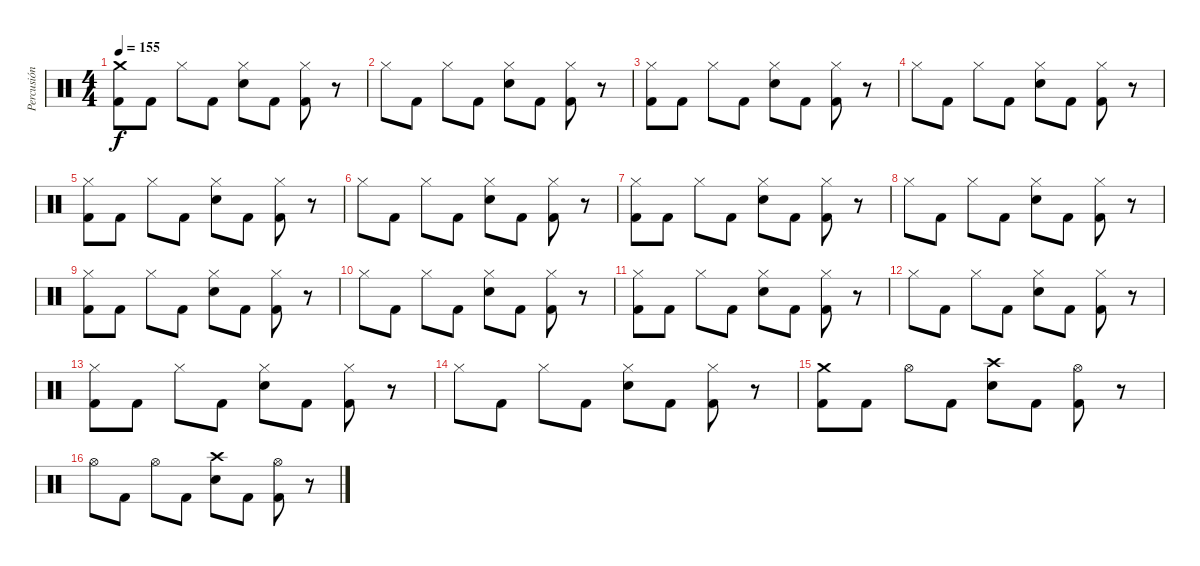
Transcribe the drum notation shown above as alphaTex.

\track ("Percusión" "Percusión") {instrument percussion}
\staff {score}
\articulation defaults
\ts (4 4)
\tempo 155
\clef neutral
\ks c
("Crash medium (hit)" "Kick (hit) 2").8{dy f} "Kick (hit) 2".8 "Hi-Hat (closed)".8 "Kick (hit) 2".8 ("Hi-Hat (closed)" "Electric Snare (hit)").8 "Kick (hit) 2".8 ("Hi-Hat (closed)" "Kick (hit) 2").8 r.8 |
"Hi-Hat (closed)".8 "Kick (hit) 2".8 "Hi-Hat (closed)".8 "Kick (hit) 2".8 ("Hi-Hat (closed)" "Electric Snare (hit)").8 "Kick (hit) 2".8 ("Hi-Hat (closed)" "Kick (hit) 2").8 r.8 |
("Hi-Hat (closed)" "Kick (hit) 2").8 "Kick (hit) 2".8 "Hi-Hat (closed)".8 "Kick (hit) 2".8 ("Hi-Hat (closed)" "Electric Snare (hit)").8 "Kick (hit) 2".8 ("Hi-Hat (closed)" "Kick (hit) 2").8 r.8 |
"Hi-Hat (closed)".8 "Kick (hit) 2".8 "Hi-Hat (closed)".8 "Kick (hit) 2".8 ("Hi-Hat (closed)" "Electric Snare (hit)").8 "Kick (hit) 2".8 ("Hi-Hat (closed)" "Kick (hit) 2").8 r.8 |
("Hi-Hat (closed)" "Kick (hit) 2").8 "Kick (hit) 2".8 "Hi-Hat (closed)".8 "Kick (hit) 2".8 ("Hi-Hat (closed)" "Electric Snare (hit)").8 "Kick (hit) 2".8 ("Hi-Hat (closed)" "Kick (hit) 2").8 r.8 |
"Hi-Hat (closed)".8 "Kick (hit) 2".8 "Hi-Hat (closed)".8 "Kick (hit) 2".8 ("Hi-Hat (closed)" "Electric Snare (hit)").8 "Kick (hit) 2".8 ("Hi-Hat (closed)" "Kick (hit) 2").8 r.8 |
("Hi-Hat (closed)" "Kick (hit) 2").8 "Kick (hit) 2".8 "Hi-Hat (closed)".8 "Kick (hit) 2".8 ("Hi-Hat (closed)" "Electric Snare (hit)").8 "Kick (hit) 2".8 ("Hi-Hat (closed)" "Kick (hit) 2").8 r.8 |
"Hi-Hat (closed)".8 "Kick (hit) 2".8 "Hi-Hat (closed)".8 "Kick (hit) 2".8 ("Hi-Hat (closed)" "Electric Snare (hit)").8 "Kick (hit) 2".8 ("Hi-Hat (closed)" "Kick (hit) 2").8 r.8 |
("Hi-Hat (closed)" "Kick (hit) 2").8 "Kick (hit) 2".8 "Hi-Hat (closed)".8 "Kick (hit) 2".8 ("Hi-Hat (closed)" "Electric Snare (hit)").8 "Kick (hit) 2".8 ("Hi-Hat (closed)" "Kick (hit) 2").8 r.8 |
"Hi-Hat (closed)".8 "Kick (hit) 2".8 "Hi-Hat (closed)".8 "Kick (hit) 2".8 ("Hi-Hat (closed)" "Electric Snare (hit)").8 "Kick (hit) 2".8 ("Hi-Hat (closed)" "Kick (hit) 2").8 r.8 |
("Hi-Hat (closed)" "Kick (hit) 2").8 "Kick (hit) 2".8 "Hi-Hat (closed)".8 "Kick (hit) 2".8 ("Hi-Hat (closed)" "Electric Snare (hit)").8 "Kick (hit) 2".8 ("Hi-Hat (closed)" "Kick (hit) 2").8 r.8 |
"Hi-Hat (closed)".8 "Kick (hit) 2".8 "Hi-Hat (closed)".8 "Kick (hit) 2".8 ("Hi-Hat (closed)" "Electric Snare (hit)").8 "Kick (hit) 2".8 ("Hi-Hat (closed)" "Kick (hit) 2").8 r.8 |
("Hi-Hat (closed)" "Kick (hit) 2").8 "Kick (hit) 2".8 "Hi-Hat (closed)".8 "Kick (hit) 2".8 ("Hi-Hat (closed)" "Electric Snare (hit)").8 "Kick (hit) 2".8 ("Hi-Hat (closed)" "Kick (hit) 2").8 r.8 |
"Hi-Hat (closed)".8 "Kick (hit) 2".8 "Hi-Hat (closed)".8 "Kick (hit) 2".8 ("Hi-Hat (closed)" "Electric Snare (hit)").8 "Kick (hit) 2".8 ("Hi-Hat (closed)" "Kick (hit) 2").8 r.8 |
("Crash medium (hit)" "Kick (hit) 2").8 "Kick (hit) 2".8 "Hi-Hat (open)".8 "Kick (hit) 2".8 ("Crash high (hit)" "Electric Snare (hit)").8 "Kick (hit) 2".8 ("Hi-Hat (open)" "Kick (hit) 2").8 r.8 |
"Hi-Hat (open)".8 "Kick (hit) 2".8 "Hi-Hat (open)".8 "Kick (hit) 2".8 ("Crash high (hit)" "Electric Snare (hit)").8 "Kick (hit) 2".8 ("Hi-Hat (open)" "Kick (hit) 2").8 r.8
